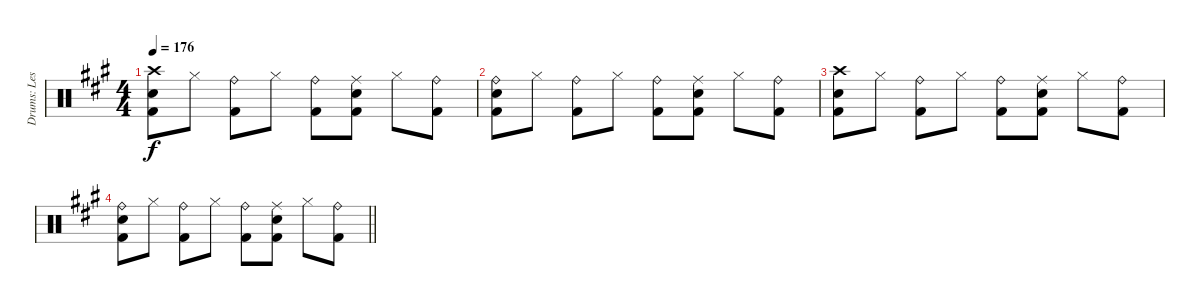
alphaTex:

\track ("Drums: Les" "Drums: Les") {instrument percussion}
\staff {score}
\articulation defaults
\ts (4 4)
\tempo 176
\clef neutral
\ks a
("Crash high (hit)" "Snare (hit) 2" "Kick (hit) 2").8{dy f} "Hi-Hat (closed)".8 ("Ride (bell)" "Kick (hit) 2").8 "Hi-Hat (closed)".8 ("Ride (bell)" "Kick (hit) 2").8 ("Ride (middle)" "Snare (hit) 2" "Kick (hit) 2").8 "Hi-Hat (closed)".8 ("Ride (bell)" "Kick (hit) 2").8 |
("Ride (bell)" "Snare (hit) 2" "Kick (hit) 2").8 "Hi-Hat (closed)".8 ("Ride (bell)" "Kick (hit) 2").8 "Hi-Hat (closed)".8 ("Ride (bell)" "Kick (hit) 2").8 ("Ride (middle)" "Snare (hit) 2" "Kick (hit) 2").8 "Hi-Hat (closed)".8 ("Ride (bell)" "Kick (hit) 2").8 |
("Crash high (hit)" "Snare (hit) 2" "Kick (hit) 2").8 "Hi-Hat (closed)".8 ("Ride (bell)" "Kick (hit) 2").8 "Hi-Hat (closed)".8 ("Ride (bell)" "Kick (hit) 2").8 ("Ride (middle)" "Snare (hit) 2" "Kick (hit) 2").8 "Hi-Hat (closed)".8 ("Ride (bell)" "Kick (hit) 2").8 |
\barLineRight lightlight
("Ride (bell)" "Snare (hit) 2" "Kick (hit) 2").8 "Hi-Hat (closed)".8 ("Ride (bell)" "Kick (hit) 2").8 "Hi-Hat (closed)".8 ("Ride (bell)" "Kick (hit) 2").8 ("Ride (middle)" "Snare (hit) 2" "Kick (hit) 2").8 "Hi-Hat (closed)".8 ("Ride (bell)" "Kick (hit) 2").8
